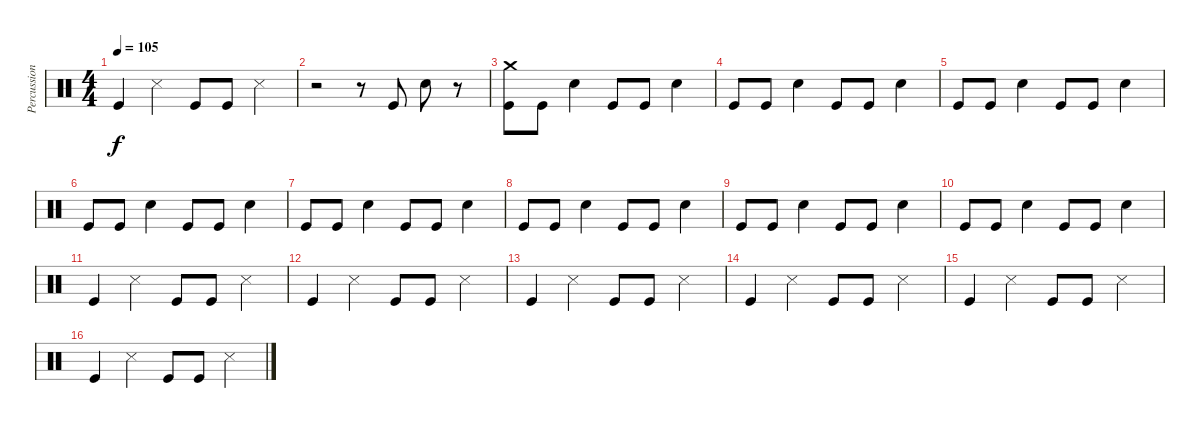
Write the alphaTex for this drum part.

\track ("Percussions" "Percussion") {instrument percussion}
\staff {score}
\articulation defaults
\ts (4 4)
\tempo 105
\clef neutral
\ks c "Kick (hit)".4{dy f} "Metronome (hit)".4 "Kick (hit)".8 "Kick (hit)".8 "Metronome (hit)".4
|
r.2 r.8 "Kick (hit)".8 "Electric Snare (hit)".8 r.8 |
("Kick (hit)" "Crash medium (hit)").8 "Kick (hit)".8 "Electric Snare (hit)".4 "Kick (hit)".8 "Kick (hit)".8 "Electric Snare (hit)".4 |
"Kick (hit)".8 "Kick (hit)".8 "Electric Snare (hit)".4 "Kick (hit)".8 "Kick (hit)".8 "Electric Snare (hit)".4 |
"Kick (hit)".8 "Kick (hit)".8 "Electric Snare (hit)".4 "Kick (hit)".8 "Kick (hit)".8 "Electric Snare (hit)".4 |
"Kick (hit)".8 "Kick (hit)".8 "Electric Snare (hit)".4 "Kick (hit)".8 "Kick (hit)".8 "Electric Snare (hit)".4 |
"Kick (hit)".8 "Kick (hit)".8 "Electric Snare (hit)".4 "Kick (hit)".8 "Kick (hit)".8 "Electric Snare (hit)".4 |
"Kick (hit)".8 "Kick (hit)".8 "Electric Snare (hit)".4 "Kick (hit)".8 "Kick (hit)".8 "Electric Snare (hit)".4 |
"Kick (hit)".8 "Kick (hit)".8 "Electric Snare (hit)".4 "Kick (hit)".8 "Kick (hit)".8 "Electric Snare (hit)".4 |
"Kick (hit)".8 "Kick (hit)".8 "Electric Snare (hit)".4 "Kick (hit)".8 "Kick (hit)".8 "Electric Snare (hit)".4 |
"Kick (hit)".4 "Metronome (hit)".4 "Kick (hit)".8 "Kick (hit)".8 "Metronome (hit)".4 |
"Kick (hit)".4 "Metronome (hit)".4 "Kick (hit)".8 "Kick (hit)".8 "Metronome (hit)".4 |
"Kick (hit)".4 "Metronome (hit)".4 "Kick (hit)".8 "Kick (hit)".8 "Metronome (hit)".4 |
"Kick (hit)".4 "Metronome (hit)".4 "Kick (hit)".8 "Kick (hit)".8 "Metronome (hit)".4 |
"Kick (hit)".4 "Metronome (hit)".4 "Kick (hit)".8 "Kick (hit)".8 "Metronome (hit)".4 |
"Kick (hit)".4 "Metronome (hit)".4 "Kick (hit)".8 "Kick (hit)".8 "Metronome (hit)".4
